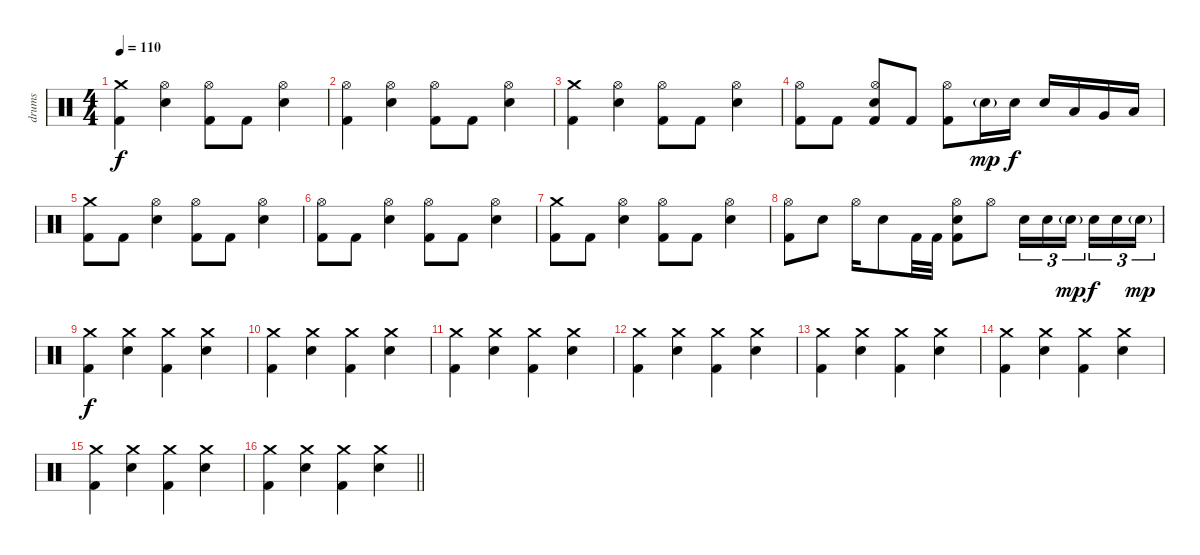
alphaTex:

\track ("drums" "drums") {instrument percussion}
\staff {score}
\articulation defaults
\ts (4 4)
\tempo 110
\clef neutral
\ks c
("Crash medium (hit)" "Kick (hit) 2").4{dy f} ("Hi-Hat (open)" "Electric Snare (hit)").4 ("Hi-Hat (open)" "Kick (hit) 2").8 "Kick (hit) 2".8 ("Hi-Hat (open)" "Electric Snare (hit)").4 |
("Hi-Hat (open)" "Kick (hit) 2").4 ("Hi-Hat (open)" "Electric Snare (hit)").4 ("Hi-Hat (open)" "Kick (hit) 2").8 "Kick (hit) 2".8 ("Hi-Hat (open)" "Electric Snare (hit)").4 |
("Crash medium (hit)" "Kick (hit) 2").4 ("Hi-Hat (open)" "Electric Snare (hit)").4 ("Hi-Hat (open)" "Kick (hit) 2").8 "Kick (hit) 2".8 ("Hi-Hat (open)" "Electric Snare (hit)").4 |
("Hi-Hat (open)" "Kick (hit) 2").8 "Kick (hit) 2".8 ("Hi-Hat (open)" "Electric Snare (hit)" "Kick (hit) 2").8 "Kick (hit) 2".8 ("Hi-Hat (open)" "Kick (hit) 2").8 "Electric Snare (hit)"{g}.16{dy mp} "Electric Snare (hit)".16{dy f} "Electric Snare (hit)".16 "Low Tom (hit)".16 "Very Low Tom (hit)".16 "Low Floor Tom (hit)".16 |
("Crash medium (hit)" "Kick (hit) 2").8 "Kick (hit) 2".8 ("Hi-Hat (open)" "Electric Snare (hit)").4 ("Hi-Hat (open)" "Kick (hit) 2").8 "Kick (hit) 2".8 ("Hi-Hat (open)" "Electric Snare (hit)").4 |
("Hi-Hat (open)" "Kick (hit) 2").8 "Kick (hit) 2".8 ("Hi-Hat (open)" "Electric Snare (hit)").4 ("Hi-Hat (open)" "Kick (hit) 2").8 "Kick (hit) 2".8 ("Hi-Hat (open)" "Electric Snare (hit)").4 |
("Crash medium (hit)" "Kick (hit) 2").8 "Kick (hit) 2".8 ("Hi-Hat (open)" "Electric Snare (hit)").4 ("Hi-Hat (open)" "Kick (hit) 2").8 "Kick (hit) 2".8 ("Hi-Hat (open)" "Electric Snare (hit)").4 |
("Hi-Hat (open)" "Kick (hit) 2").8 "Electric Snare (hit)".8 "Hi-Hat (open)".16 "Electric Snare (hit)".8 "Kick (hit) 2".32 "Kick (hit) 2".32 ("Hi-Hat (open)" "Electric Snare (hit)" "Kick (hit) 2").8 "Hi-Hat (open)".8 "Electric Snare (hit)".16{tu (3 2)} "Electric Snare (hit)".16{tu (3 2)} "Electric Snare (hit)"{g}.16{tu (3 2) dy mp beam splitsecondary} "Electric Snare (hit)".16{tu (3 2) dy f} "Electric Snare (hit)".16{tu (3 2)} "Electric Snare (hit)"{g}.16{tu (3 2) dy mp} |
("Crash medium (hit)" "Kick (hit) 2").4{dy f} ("Crash medium (hit)" "Electric Snare (hit)").4 ("Crash medium (hit)" "Kick (hit) 2").4 ("Crash medium (hit)" "Electric Snare (hit)").4 |
("Crash medium (hit)" "Kick (hit) 2").4 ("Crash medium (hit)" "Electric Snare (hit)").4 ("Crash medium (hit)" "Kick (hit) 2").4 ("Crash medium (hit)" "Electric Snare (hit)").4 |
("Crash medium (hit)" "Kick (hit) 2").4 ("Crash medium (hit)" "Electric Snare (hit)").4 ("Crash medium (hit)" "Kick (hit) 2").4 ("Crash medium (hit)" "Electric Snare (hit)").4 |
("Crash medium (hit)" "Kick (hit) 2").4 ("Crash medium (hit)" "Electric Snare (hit)").4 ("Crash medium (hit)" "Kick (hit) 2").4 ("Crash medium (hit)" "Electric Snare (hit)").4 |
("Crash medium (hit)" "Kick (hit) 2").4 ("Crash medium (hit)" "Electric Snare (hit)").4 ("Crash medium (hit)" "Kick (hit) 2").4 ("Crash medium (hit)" "Electric Snare (hit)").4 |
("Crash medium (hit)" "Kick (hit) 2").4 ("Crash medium (hit)" "Electric Snare (hit)").4 ("Crash medium (hit)" "Kick (hit) 2").4 ("Crash medium (hit)" "Electric Snare (hit)").4 |
("Crash medium (hit)" "Kick (hit) 2").4 ("Crash medium (hit)" "Electric Snare (hit)").4 ("Crash medium (hit)" "Kick (hit) 2").4 ("Crash medium (hit)" "Electric Snare (hit)").4 |
\barLineRight lightlight
("Crash medium (hit)" "Kick (hit) 2").4 ("Crash medium (hit)" "Electric Snare (hit)").4 ("Crash medium (hit)" "Kick (hit) 2").4 ("Crash medium (hit)" "Electric Snare (hit)").4
